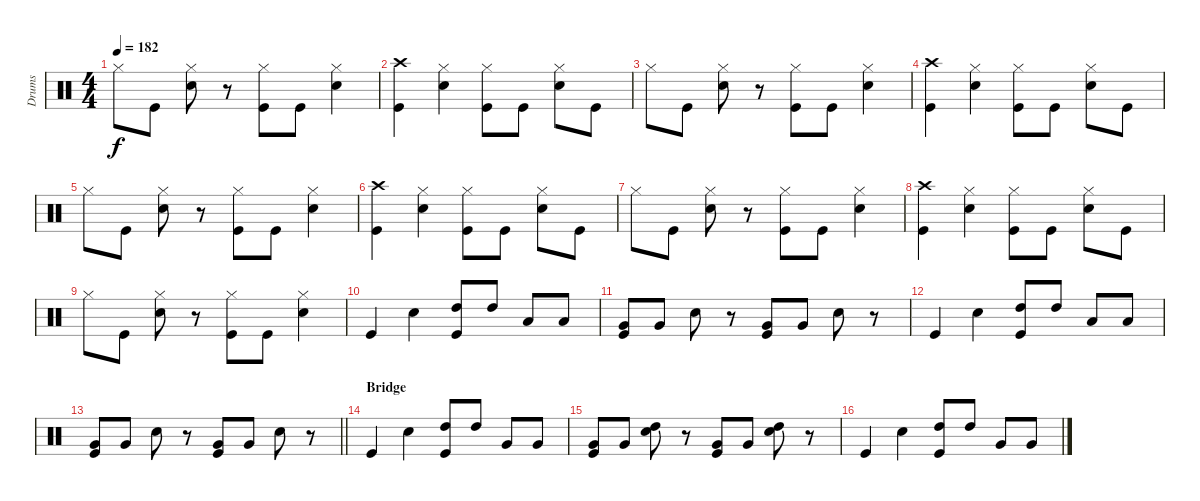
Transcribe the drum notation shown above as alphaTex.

\track ("Drums" "Drums") {instrument percussion}
\staff {score}
\articulation defaults
\ts (4 4)
\tempo 182
\clef neutral
\ks c "Hi-Hat (closed)".8{dy f} "Kick (hit)".8
("Hi-Hat (closed)" "Snare (hit) 2").8 r.8 ("Hi-Hat (closed)" "Kick (hit)").8 "Kick (hit)".8 ("Hi-Hat (closed)" "Snare (hit) 2").4 |
("Crash high (hit)" "Kick (hit)").4 ("Hi-Hat (closed)" "Snare (hit) 2").4 ("Hi-Hat (closed)" "Kick (hit)").8 "Kick (hit)".8 ("Hi-Hat (closed)" "Snare (hit) 2").8 "Kick (hit)".8 |
"Hi-Hat (closed)".8 "Kick (hit)".8 ("Hi-Hat (closed)" "Snare (hit) 2").8 r.8 ("Hi-Hat (closed)" "Kick (hit)").8 "Kick (hit)".8 ("Hi-Hat (closed)" "Snare (hit) 2").4 |
("Crash high (hit)" "Kick (hit)").4 ("Hi-Hat (closed)" "Snare (hit) 2").4 ("Hi-Hat (closed)" "Kick (hit)").8 "Kick (hit)".8 ("Hi-Hat (closed)" "Snare (hit) 2").8 "Kick (hit)".8 |
"Hi-Hat (closed)".8 "Kick (hit)".8 ("Hi-Hat (closed)" "Snare (hit) 2").8 r.8 ("Hi-Hat (closed)" "Kick (hit)").8 "Kick (hit)".8 ("Hi-Hat (closed)" "Snare (hit) 2").4 |
("Crash high (hit)" "Kick (hit)").4 ("Hi-Hat (closed)" "Snare (hit) 2").4 ("Hi-Hat (closed)" "Kick (hit)").8 "Kick (hit)".8 ("Hi-Hat (closed)" "Snare (hit) 2").8 "Kick (hit)".8 |
"Hi-Hat (closed)".8 "Kick (hit)".8 ("Hi-Hat (closed)" "Snare (hit) 2").8 r.8 ("Hi-Hat (closed)" "Kick (hit)").8 "Kick (hit)".8 ("Hi-Hat (closed)" "Snare (hit) 2").4 |
("Crash high (hit)" "Kick (hit)").4 ("Hi-Hat (closed)" "Snare (hit) 2").4 ("Hi-Hat (closed)" "Kick (hit)").8 "Kick (hit)".8 ("Hi-Hat (closed)" "Snare (hit) 2").8 "Kick (hit)".8 |
"Hi-Hat (closed)".8 "Kick (hit)".8 ("Hi-Hat (closed)" "Snare (hit) 2").8 r.8 ("Hi-Hat (closed)" "Kick (hit)").8 "Kick (hit)".8 ("Hi-Hat (closed)" "Snare (hit) 2").4 |
"Kick (hit)".4 "Snare (hit) 2".4 ("High Tom (hit)" "Kick (hit)").8 "High Tom (hit)".8 "Low Tom (hit)".8 "Low Tom (hit)".8 |
("Very Low Tom (hit)" "Kick (hit)").8 "Very Low Tom (hit)".8 "Snare (hit) 2".8 r.8 ("Very Low Tom (hit)" "Kick (hit)").8 "Very Low Tom (hit)".8 "Snare (hit) 2".8 r.8 |
"Kick (hit)".4 "Snare (hit) 2".4 ("High Tom (hit)" "Kick (hit)").8 "High Tom (hit)".8 "Low Tom (hit)".8 "Low Tom (hit)".8 |
\barLineRight lightlight
("Very Low Tom (hit)" "Kick (hit)").8 "Very Low Tom (hit)".8 "Snare (hit) 2".8 r.8 ("Very Low Tom (hit)" "Kick (hit)").8 "Very Low Tom (hit)".8 "Snare (hit) 2".8 r.8 |
\section ("" "Bridge")
"Kick (hit)".4 "Snare (hit) 2".4 ("High Tom (hit)" "Kick (hit)").8 "High Tom (hit)".8 "Very Low Tom (hit)".8 "Very Low Tom (hit)".8 |
("Very Low Tom (hit)" "Kick (hit)").8 "Very Low Tom (hit)".8 ("Snare (hit) 2" "High Tom (hit)").8 r.8 ("Very Low Tom (hit)" "Kick (hit)").8 "Very Low Tom (hit)".8 ("Snare (hit) 2" "High Tom (hit)").8 r.8 |
"Kick (hit)".4 "Snare (hit) 2".4 ("High Tom (hit)" "Kick (hit)").8 "High Tom (hit)".8 "Very Low Tom (hit)".8 "Very Low Tom (hit)".8
